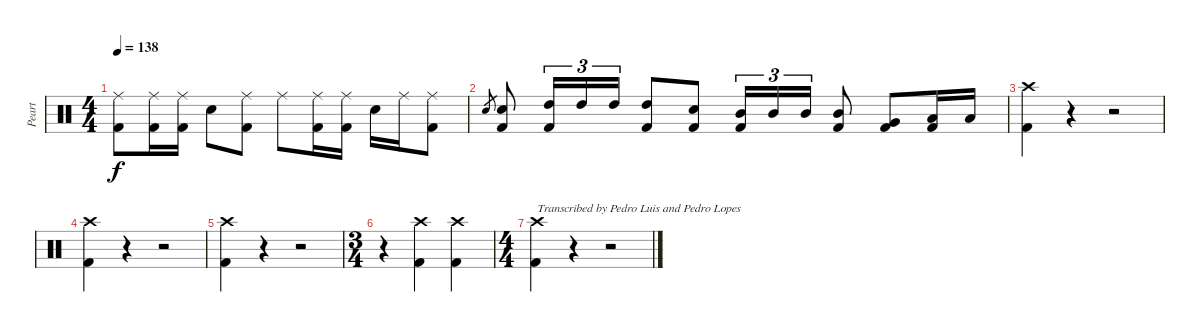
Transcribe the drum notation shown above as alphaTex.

\track ("Peart" "Peart") {instrument percussion}
\staff {score}
\articulation defaults
\ts (4 4)
\tempo 138
\clef neutral
\ks c
("Ride (middle)" "Kick (hit) 2").8{dy f} ("Ride (middle)" "Kick (hit) 2").16 ("Ride (middle)" "Kick (hit) 2").16 "Electric Snare (hit)".8 ("Ride (middle)" "Kick (hit) 2").8 "Ride (middle)".8 ("Ride (middle)" "Kick (hit) 2").16 ("Ride (middle)" "Kick (hit) 2").16 "Electric Snare (hit)".16 "Ride (middle)".16 ("Ride (middle)" "Kick (hit) 2").8 |
"Electric Snare (hit)".8{gr} ("Electric Snare (hit)" "Kick (hit) 2").8 ("High Tom (hit)" "Kick (hit) 2").16{tu (3 2)} "High Tom (hit)".16{tu (3 2)} "High Tom (hit)".16{tu (3 2)} ("High Tom (hit)" "Kick (hit) 2").8 ("Electric Snare (hit)" "Kick (hit) 2").8 ("Mid Tom (hit)" "Kick (hit) 2").16{tu (3 2)} "Mid Tom (hit)".16{tu (3 2)} "Mid Tom (hit)".16{tu (3 2)} ("Mid Tom (hit)" "Kick (hit) 2").8 ("Very Low Tom (hit)" "Kick (hit) 2").8 ("Low Floor Tom (hit)" "Kick (hit) 2").16 "Low Floor Tom (hit)".16 |
("Crash high (hit)" "Kick (hit) 2").4 r.4 r.2 |
("Crash high (hit)" "Kick (hit) 2").4 r.4 r.2 |
("Crash high (hit)" "Kick (hit) 2").4 r.4 r.2 |
\ts (3 4)
r.4 ("Crash high (hit)" "Kick (hit) 2").4 ("Crash high (hit)" "Kick (hit) 2").4 |
\ts (4 4)
("Kick (hit) 2" "Crash high (hit)").4{txt "Transcribed by Pedro Luis and Pedro Lopes"} r.4 r.2
